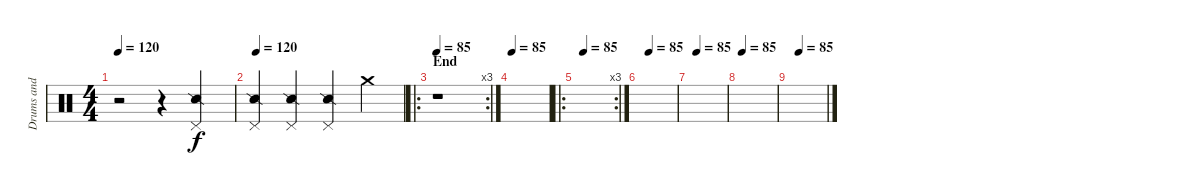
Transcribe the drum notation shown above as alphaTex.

\track ("Drums and Percussion" "Drums and ") {instrument percussion}
\staff {score}
\articulation defaults
\ts (4 4)
\tempo 120
\clef neutral
\ks c
r.2{dy f} r.4 ("Snare (side stick) 2" "Pedal Hi-Hat (hit)").4 |
\tempo 120
("Snare (side stick) 2" "Pedal Hi-Hat (hit)").4 ("Snare (side stick) 2" "Pedal Hi-Hat (hit)").4 ("Snare (side stick) 2" "Pedal Hi-Hat (hit)").4 "Crash medium (hit)".4 |
\ro
\rc 3
\section ("" "End")
\tempo 85
r.1 |
\tempo 85
|
\ro
\rc 3
\tempo (85 0.1875)
|
\tempo (85 0.25)
|
\tempo (85 0.1875)
|
\tempo (85 0.0625)
|
\tempo (85 0.25)
